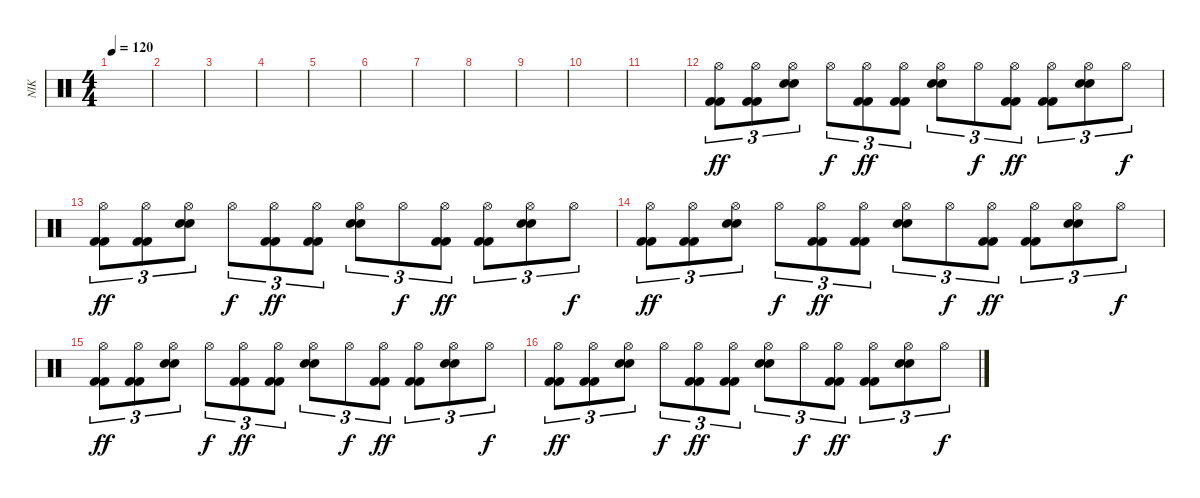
\track ("NIK" "NIK") {instrument percussion}
\staff {score}
\articulation defaults
\ts (4 4)
\tempo 120
\clef neutral
\ks c
|
|
|
|
|
|
|
|
|
|
|
("Kick (hit) 2" "Kick (hit) 2" "Hi-Hat (open)").8{tu (3 2) dy ff} ("Kick (hit) 2" "Kick (hit) 2" "Hi-Hat (open)").8{tu (3 2)} ("Electric Snare (hit)" "Electric Snare (hit)" "Hi-Hat (open)").8{tu (3 2)} "Hi-Hat (open)".8{tu (3 2) dy f} ("Kick (hit) 2" "Kick (hit) 2" "Hi-Hat (open)").8{tu (3 2) dy ff} ("Kick (hit) 2" "Kick (hit) 2" "Hi-Hat (open)").8{tu (3 2)} ("Electric Snare (hit)" "Electric Snare (hit)" "Hi-Hat (open)").8{tu (3 2)} "Hi-Hat (open)".8{tu (3 2) dy f} ("Kick (hit) 2" "Kick (hit) 2" "Hi-Hat (open)").8{tu (3 2) dy ff} ("Kick (hit) 2" "Kick (hit) 2" "Hi-Hat (open)").8{tu (3 2)} ("Electric Snare (hit)" "Electric Snare (hit)" "Hi-Hat (open)").8{tu (3 2)} "Hi-Hat (open)".8{tu (3 2) dy f} |
("Kick (hit) 2" "Kick (hit) 2" "Hi-Hat (open)").8{tu (3 2) dy ff} ("Kick (hit) 2" "Kick (hit) 2" "Hi-Hat (open)").8{tu (3 2)} ("Electric Snare (hit)" "Electric Snare (hit)" "Hi-Hat (open)").8{tu (3 2)} "Hi-Hat (open)".8{tu (3 2) dy f} ("Kick (hit) 2" "Kick (hit) 2" "Hi-Hat (open)").8{tu (3 2) dy ff} ("Kick (hit) 2" "Kick (hit) 2" "Hi-Hat (open)").8{tu (3 2)} ("Electric Snare (hit)" "Electric Snare (hit)" "Hi-Hat (open)").8{tu (3 2)} "Hi-Hat (open)".8{tu (3 2) dy f} ("Kick (hit) 2" "Kick (hit) 2" "Hi-Hat (open)").8{tu (3 2) dy ff} ("Kick (hit) 2" "Kick (hit) 2" "Hi-Hat (open)").8{tu (3 2)} ("Electric Snare (hit)" "Electric Snare (hit)" "Hi-Hat (open)").8{tu (3 2)} "Hi-Hat (open)".8{tu (3 2) dy f} |
("Kick (hit) 2" "Kick (hit) 2" "Hi-Hat (open)").8{tu (3 2) dy ff} ("Kick (hit) 2" "Kick (hit) 2" "Hi-Hat (open)").8{tu (3 2)} ("Electric Snare (hit)" "Electric Snare (hit)" "Hi-Hat (open)").8{tu (3 2)} "Hi-Hat (open)".8{tu (3 2) dy f} ("Kick (hit) 2" "Kick (hit) 2" "Hi-Hat (open)").8{tu (3 2) dy ff} ("Kick (hit) 2" "Kick (hit) 2" "Hi-Hat (open)").8{tu (3 2)} ("Electric Snare (hit)" "Electric Snare (hit)" "Hi-Hat (open)").8{tu (3 2)} "Hi-Hat (open)".8{tu (3 2) dy f} ("Kick (hit) 2" "Kick (hit) 2" "Hi-Hat (open)").8{tu (3 2) dy ff} ("Kick (hit) 2" "Kick (hit) 2" "Hi-Hat (open)").8{tu (3 2)} ("Electric Snare (hit)" "Electric Snare (hit)" "Hi-Hat (open)").8{tu (3 2)} "Hi-Hat (open)".8{tu (3 2) dy f} |
("Kick (hit) 2" "Kick (hit) 2" "Hi-Hat (open)").8{tu (3 2) dy ff} ("Kick (hit) 2" "Kick (hit) 2" "Hi-Hat (open)").8{tu (3 2)} ("Electric Snare (hit)" "Electric Snare (hit)" "Hi-Hat (open)").8{tu (3 2)} "Hi-Hat (open)".8{tu (3 2) dy f} ("Kick (hit) 2" "Kick (hit) 2" "Hi-Hat (open)").8{tu (3 2) dy ff} ("Kick (hit) 2" "Kick (hit) 2" "Hi-Hat (open)").8{tu (3 2)} ("Electric Snare (hit)" "Electric Snare (hit)" "Hi-Hat (open)").8{tu (3 2)} "Hi-Hat (open)".8{tu (3 2) dy f} ("Kick (hit) 2" "Kick (hit) 2" "Hi-Hat (open)").8{tu (3 2) dy ff} ("Kick (hit) 2" "Kick (hit) 2" "Hi-Hat (open)").8{tu (3 2)} ("Electric Snare (hit)" "Electric Snare (hit)" "Hi-Hat (open)").8{tu (3 2)} "Hi-Hat (open)".8{tu (3 2) dy f} |
("Kick (hit) 2" "Kick (hit) 2" "Hi-Hat (open)").8{tu (3 2) dy ff} ("Kick (hit) 2" "Kick (hit) 2" "Hi-Hat (open)").8{tu (3 2)} ("Electric Snare (hit)" "Electric Snare (hit)" "Hi-Hat (open)").8{tu (3 2)} "Hi-Hat (open)".8{tu (3 2) dy f} ("Kick (hit) 2" "Kick (hit) 2" "Hi-Hat (open)").8{tu (3 2) dy ff} ("Kick (hit) 2" "Kick (hit) 2" "Hi-Hat (open)").8{tu (3 2)} ("Electric Snare (hit)" "Electric Snare (hit)" "Hi-Hat (open)").8{tu (3 2)} "Hi-Hat (open)".8{tu (3 2) dy f} ("Kick (hit) 2" "Kick (hit) 2" "Hi-Hat (open)").8{tu (3 2) dy ff} ("Kick (hit) 2" "Kick (hit) 2" "Hi-Hat (open)").8{tu (3 2)} ("Electric Snare (hit)" "Electric Snare (hit)" "Hi-Hat (open)").8{tu (3 2)} "Hi-Hat (open)".8{tu (3 2) dy f}
